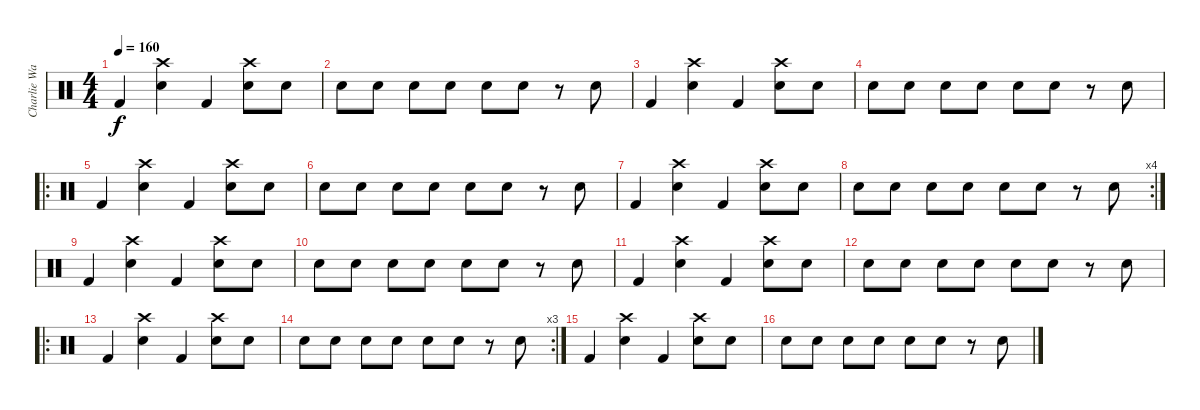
\track ("Charlie Watts" "Charlie Wa") {instrument percussion}
\staff {score}
\articulation defaults
\ts (4 4)
\tempo 160
\clef neutral
\ks c "Kick (hit) 2".4{dy f}
("Snare (hit) 2" "Crash high (hit)").4 "Kick (hit) 2".4 ("Snare (hit) 2" "Crash high (hit)").8 "Snare (hit) 2".8 |
"Snare (hit) 2".8 "Snare (hit) 2".8 "Snare (hit) 2".8 "Snare (hit) 2".8 "Snare (hit) 2".8 "Snare (hit) 2".8 r.8 "Snare (hit) 2".8 |
"Kick (hit) 2".4 ("Snare (hit) 2" "Crash high (hit)").4 "Kick (hit) 2".4 ("Snare (hit) 2" "Crash high (hit)").8 "Snare (hit) 2".8 |
"Snare (hit) 2".8 "Snare (hit) 2".8 "Snare (hit) 2".8 "Snare (hit) 2".8 "Snare (hit) 2".8 "Snare (hit) 2".8 r.8 "Snare (hit) 2".8 |
\ro "Kick (hit) 2".4
("Snare (hit) 2" "Crash high (hit)").4 "Kick (hit) 2".4 ("Snare (hit) 2" "Crash high (hit)").8 "Snare (hit) 2".8 |
"Snare (hit) 2".8 "Snare (hit) 2".8 "Snare (hit) 2".8 "Snare (hit) 2".8 "Snare (hit) 2".8 "Snare (hit) 2".8 r.8 "Snare (hit) 2".8 |
"Kick (hit) 2".4 ("Snare (hit) 2" "Crash high (hit)").4 "Kick (hit) 2".4 ("Snare (hit) 2" "Crash high (hit)").8 "Snare (hit) 2".8 |
\rc 4 "Snare (hit) 2".8 "Snare (hit) 2".8 "Snare (hit) 2".8 "Snare (hit) 2".8 "Snare (hit) 2".8 "Snare (hit) 2".8
r.8 "Snare (hit) 2".8 |
"Kick (hit) 2".4 ("Snare (hit) 2" "Crash high (hit)").4 "Kick (hit) 2".4 ("Snare (hit) 2" "Crash high (hit)").8 "Snare (hit) 2".8 |
"Snare (hit) 2".8 "Snare (hit) 2".8 "Snare (hit) 2".8 "Snare (hit) 2".8 "Snare (hit) 2".8 "Snare (hit) 2".8 r.8 "Snare (hit) 2".8 |
"Kick (hit) 2".4 ("Snare (hit) 2" "Crash high (hit)").4 "Kick (hit) 2".4 ("Snare (hit) 2" "Crash high (hit)").8 "Snare (hit) 2".8 |
"Snare (hit) 2".8 "Snare (hit) 2".8 "Snare (hit) 2".8 "Snare (hit) 2".8 "Snare (hit) 2".8 "Snare (hit) 2".8 r.8 "Snare (hit) 2".8 |
\ro "Kick (hit) 2".4
("Snare (hit) 2" "Crash high (hit)").4 "Kick (hit) 2".4 ("Snare (hit) 2" "Crash high (hit)").8 "Snare (hit) 2".8 |
\rc 3 "Snare (hit) 2".8 "Snare (hit) 2".8 "Snare (hit) 2".8 "Snare (hit) 2".8 "Snare (hit) 2".8 "Snare (hit) 2".8
r.8 "Snare (hit) 2".8 |
"Kick (hit) 2".4 ("Snare (hit) 2" "Crash high (hit)").4 "Kick (hit) 2".4 ("Snare (hit) 2" "Crash high (hit)").8 "Snare (hit) 2".8 |
"Snare (hit) 2".8 "Snare (hit) 2".8 "Snare (hit) 2".8 "Snare (hit) 2".8 "Snare (hit) 2".8 "Snare (hit) 2".8 r.8 "Snare (hit) 2".8
